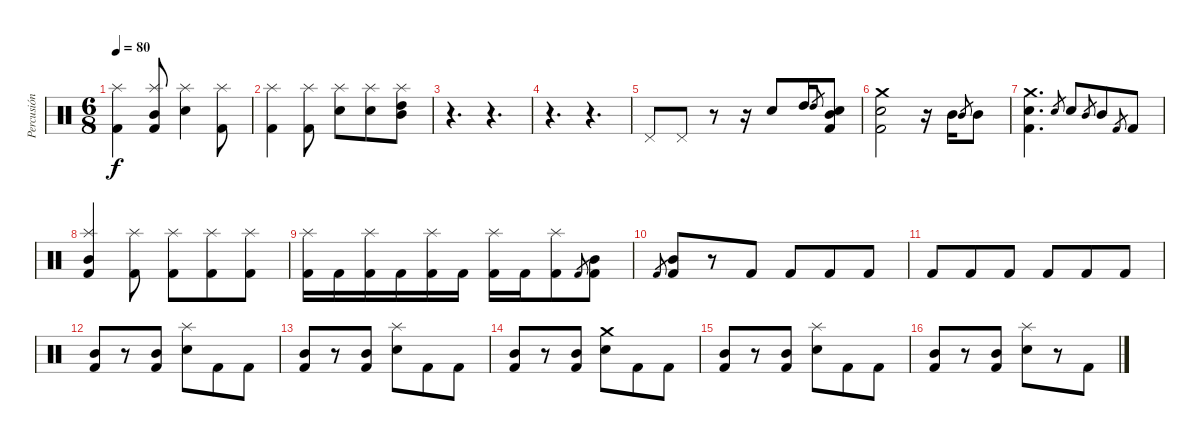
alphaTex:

\track ("Percusión" "Percusión") {instrument percussion}
\staff {score}
\articulation defaults
\ts (6 8)
\tempo 80
\clef neutral
\ks c
("Kick (hit) 2" "Splash (hit)").4{dy f} ("Kick (hit) 2" "Mid Tom (hit)" "Splash (hit)").8 ("Snare (hit) 2" "Splash (hit)").4 ("Kick (hit) 2" "Splash (hit)").8 |
("Kick (hit) 2" "Splash (hit)").4 ("Kick (hit) 2" "Splash (hit)").8 ("Snare (hit) 2" "Splash (hit)").8 ("Snare (hit) 2" "Splash (hit)").8 ("High Tom (hit)" "Mid Tom (hit)" "Splash (hit)").8 |
r.4{d} r.4{d} |
r.4{d} r.4{d} |
"Pedal Hi-Hat (hit)".8 "Pedal Hi-Hat (hit)".8 r.8 r.16 "Electric Snare (hit)".8 "High Tom (hit)".16 "High Tom (hit)".8{gr} ("Snare (hit) 2" "Kick (hit) 2" "Mid Tom (hit)").8 |
("Snare (hit) 2" "Crash medium (hit)" "Kick (hit) 2").2 r.16 "Mid Tom (hit)".16 "Mid Tom (hit)".8{gr} "Mid Tom (hit)".8 |
("Snare (hit) 2" "Crash medium (hit)" "Kick (hit) 2").4{d} "Snare (hit) 2".8{gr} "Snare (hit) 2".8 "Mid Tom (hit)".8{gr} "Mid Tom (hit)".8 "Kick (hit) 2".8{gr} "Kick (hit) 2".8 |
("Kick (hit) 2" "Mid Tom (hit)" "Splash (hit)").4 ("Kick (hit) 2" "Splash (hit)").8 ("Kick (hit) 2" "Splash (hit)").8 ("Kick (hit) 2" "Splash (hit)").8 ("Kick (hit) 2" "Splash (hit)").8 |
("Kick (hit) 2" "Splash (hit)").16 "Kick (hit) 2".16 ("Kick (hit) 2" "Splash (hit)").16 "Kick (hit) 2".16 ("Kick (hit) 2" "Splash (hit)").16 "Kick (hit) 2".16 ("Kick (hit) 2" "Splash (hit)").16 "Kick (hit) 2".16 ("Kick (hit) 2" "Splash (hit)").8 "Kick (hit) 2".8{gr} ("Kick (hit) 2" "Mid Tom (hit)").8 |
"Kick (hit) 2".8{gr} ("Kick (hit) 2" "Mid Tom (hit)").8 r.8 "Kick (hit) 2".8 "Kick (hit) 2".8 "Kick (hit) 2".8 "Kick (hit) 2".8 |
"Kick (hit) 2".8 "Kick (hit) 2".8 "Kick (hit) 2".8 "Kick (hit) 2".8 "Kick (hit) 2".8 "Kick (hit) 2".8 |
("Kick (hit) 2" "Mid Tom (hit)").8 r.8 ("Kick (hit) 2" "Mid Tom (hit)").8 ("Snare (hit) 2" "Splash (hit)").8 "Kick (hit) 2".8 "Kick (hit) 2".8 |
("Kick (hit) 2" "Mid Tom (hit)").8 r.8 ("Kick (hit) 2" "Mid Tom (hit)").8 ("Snare (hit) 2" "Splash (hit)").8 "Kick (hit) 2".8 "Kick (hit) 2".8 |
("Kick (hit) 2" "Mid Tom (hit)").8 r.8 ("Kick (hit) 2" "Mid Tom (hit)").8 ("Snare (hit) 2" "Crash medium (hit)").8 "Kick (hit) 2".8 "Kick (hit) 2".8 |
("Kick (hit) 2" "Mid Tom (hit)").8 r.8 ("Kick (hit) 2" "Mid Tom (hit)").8 ("Snare (hit) 2" "Splash (hit)").8 "Kick (hit) 2".8 "Kick (hit) 2".8 |
("Kick (hit) 2" "Mid Tom (hit)").8 r.8 ("Kick (hit) 2" "Mid Tom (hit)").8 ("Snare (hit) 2" "Splash (hit)").8 r.8 "Kick (hit) 2".8
